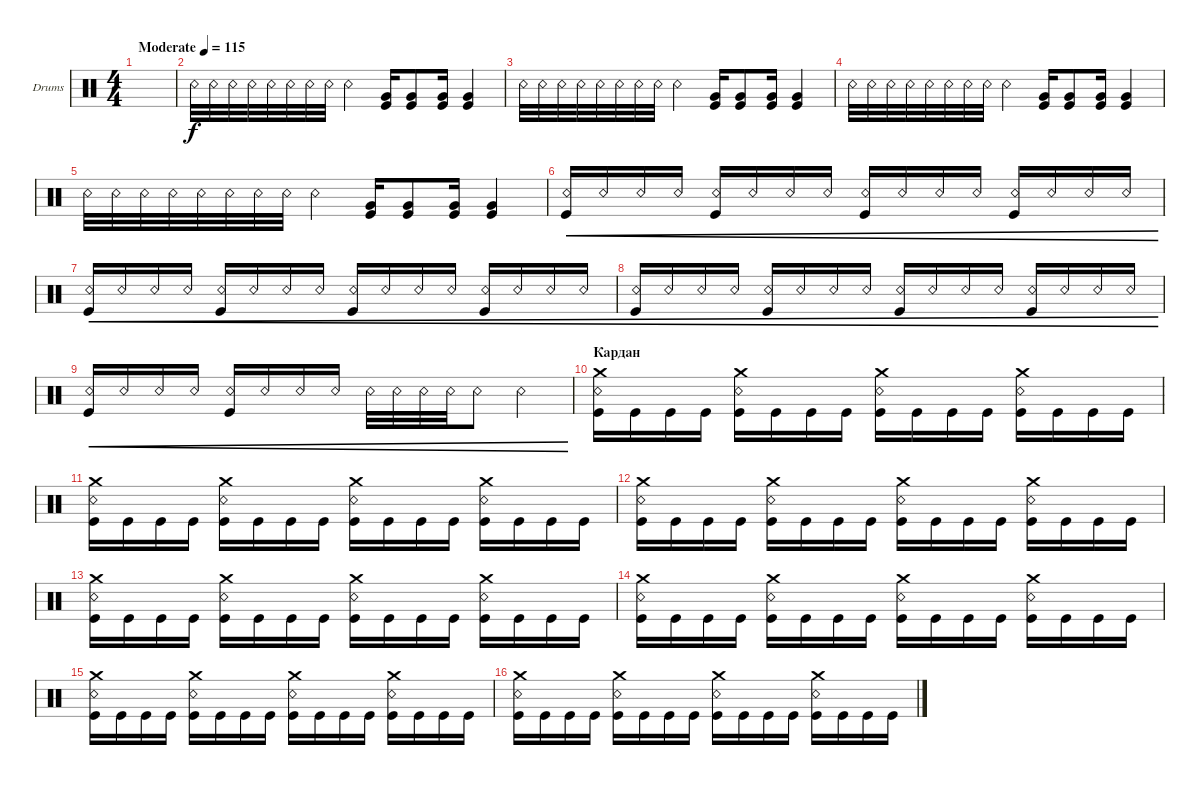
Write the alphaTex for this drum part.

\bracketExtendMode groupsimilarinstruments
\firstSystemTrackNameOrientation horizontal
\otherSystemsTrackNameOrientation horizontal
\track ("Drumkit" "Drums") {instrument percussion}
\staff {score}
\articulation defaults
\ts (4 4)
\beaming (8 2 2 2 2)
\tempo (115 "Moderate")
\clef neutral
\scale
0.474178
\ks c
|
\scale
0.262911 "Snare (rim shot)".32 "Snare (rim shot)".32 "Snare (rim shot)".32 "Snare (rim shot)".32 "Snare (rim shot)".32 "Snare (rim shot)".32 "Snare (rim shot)".32 "Snare (rim shot)".32 "Snare (rim shot)".4 ("Kick (hit)" "Very Low Tom (hit)").16 ("Kick (hit)" "Very Low Tom (hit)").8 ("Kick (hit)" "Very Low Tom (hit)").16 ("Kick (hit)" "Very Low Tom (hit)").4 |
\scale
0.262911 "Snare (rim shot)".32 "Snare (rim shot)".32 "Snare (rim shot)".32 "Snare (rim shot)".32 "Snare (rim shot)".32 "Snare (rim shot)".32 "Snare (rim shot)".32 "Snare (rim shot)".32 "Snare (rim shot)".4 ("Kick (hit)" "Very Low Tom (hit)").16 ("Kick (hit)" "Very Low Tom (hit)").8 ("Kick (hit)" "Very Low Tom (hit)").16 ("Kick (hit)" "Very Low Tom (hit)").4 |
\scale
0.333333 "Snare (rim shot)".32 "Snare (rim shot)".32 "Snare (rim shot)".32 "Snare (rim shot)".32 "Snare (rim shot)".32 "Snare (rim shot)".32 "Snare (rim shot)".32 "Snare (rim shot)".32 "Snare (rim shot)".4 ("Kick (hit)" "Very Low Tom (hit)").16 ("Kick (hit)" "Very Low Tom (hit)").8 ("Kick (hit)" "Very Low Tom (hit)").16 ("Kick (hit)" "Very Low Tom (hit)").4 |
\scale
0.333333 "Snare (rim shot)".32 "Snare (rim shot)".32 "Snare (rim shot)".32 "Snare (rim shot)".32 "Snare (rim shot)".32 "Snare (rim shot)".32 "Snare (rim shot)".32 "Snare (rim shot)".32 "Snare (rim shot)".4 ("Kick (hit)" "Very Low Tom (hit)").16 ("Kick (hit)" "Very Low Tom (hit)").8 ("Kick (hit)" "Very Low Tom (hit)").16 ("Kick (hit)" "Very Low Tom (hit)").4 |
\scale
0.333333 ("Snare (rim shot)" "Kick (hit)").16{cre} "Snare (rim shot)".16{cre} "Snare (rim shot)".16{cre} "Snare (rim shot)".16{cre} ("Snare (rim shot)" "Kick (hit)").16{cre} "Snare (rim shot)".16{cre} "Snare (rim shot)".16{cre} "Snare (rim shot)".16{cre} ("Snare (rim shot)" "Kick (hit)").16{cre} "Snare (rim shot)".16{cre} "Snare (rim shot)".16{cre} "Snare (rim shot)".16{cre} ("Snare (rim shot)" "Kick (hit)").16{cre} "Snare (rim shot)".16{cre} "Snare (rim shot)".16{cre} "Snare (rim shot)".16{cre} |
\scale
0.333333 ("Snare (rim shot)" "Kick (hit)").16{cre} "Snare (rim shot)".16{cre} "Snare (rim shot)".16{cre} "Snare (rim shot)".16{cre} ("Snare (rim shot)" "Kick (hit)").16{cre} "Snare (rim shot)".16{cre} "Snare (rim shot)".16{cre} "Snare (rim shot)".16{cre} ("Snare (rim shot)" "Kick (hit)").16{cre} "Snare (rim shot)".16{cre} "Snare (rim shot)".16{cre} "Snare (rim shot)".16{cre} ("Snare (rim shot)" "Kick (hit)").16{cre} "Snare (rim shot)".16{cre} "Snare (rim shot)".16{cre} "Snare (rim shot)".16{cre} |
\scale
0.333333 ("Snare (rim shot)" "Kick (hit)").16{cre} "Snare (rim shot)".16{cre} "Snare (rim shot)".16{cre} "Snare (rim shot)".16{cre} ("Snare (rim shot)" "Kick (hit)").16{cre} "Snare (rim shot)".16{cre} "Snare (rim shot)".16{cre} "Snare (rim shot)".16{cre} ("Snare (rim shot)" "Kick (hit)").16{cre} "Snare (rim shot)".16{cre} "Snare (rim shot)".16{cre} "Snare (rim shot)".16{cre} ("Snare (rim shot)" "Kick (hit)").16{cre} "Snare (rim shot)".16{cre} "Snare (rim shot)".16{cre} "Snare (rim shot)".16{cre} |
\scale
0.333333 ("Snare (rim shot)" "Kick (hit)").16{cre} "Snare (rim shot)".16{cre} "Snare (rim shot)".16{cre} "Snare (rim shot)".16{cre} ("Snare (rim shot)" "Kick (hit)").16{cre} "Snare (rim shot)".16{cre} "Snare (rim shot)".16{cre} "Snare (rim shot)".16{cre} "Snare (rim shot)".32{cre} "Snare (rim shot)".32{cre} "Snare (rim shot)".32{cre} "Snare (rim shot)".32{cre} "Snare (rim shot)".8{cre} "Snare (rim shot)".4{cre} |
\section ("" "Кардан")
\scale
0.333333 ("Kick (hit)" "Snare (rim shot)" "Crash medium (hit)").16 "Kick (hit)".16 "Kick (hit)".16 "Kick (hit)".16 ("Kick (hit)" "Snare (rim shot)" "Crash medium (hit)").16 "Kick (hit)".16 "Kick (hit)".16 "Kick (hit)".16 ("Kick (hit)" "Snare (rim shot)" "Crash medium (hit)").16 "Kick (hit)".16 "Kick (hit)".16 "Kick (hit)".16 ("Kick (hit)" "Snare (rim shot)" "Crash medium (hit)").16 "Kick (hit)".16 "Kick (hit)".16 "Kick (hit)".16 |
\scale
0.333333 ("Kick (hit)" "Snare (rim shot)" "Crash medium (hit)").16 "Kick (hit)".16 "Kick (hit)".16 "Kick (hit)".16 ("Kick (hit)" "Snare (rim shot)" "Crash medium (hit)").16 "Kick (hit)".16 "Kick (hit)".16 "Kick (hit)".16 ("Kick (hit)" "Snare (rim shot)" "Crash medium (hit)").16 "Kick (hit)".16 "Kick (hit)".16 "Kick (hit)".16 ("Kick (hit)" "Snare (rim shot)" "Crash medium (hit)").16 "Kick (hit)".16 "Kick (hit)".16 "Kick (hit)".16 |
\scale
0.333333 ("Kick (hit)" "Snare (rim shot)" "Crash medium (hit)").16 "Kick (hit)".16 "Kick (hit)".16 "Kick (hit)".16 ("Kick (hit)" "Snare (rim shot)" "Crash medium (hit)").16 "Kick (hit)".16 "Kick (hit)".16 "Kick (hit)".16 ("Kick (hit)" "Snare (rim shot)" "Crash medium (hit)").16 "Kick (hit)".16 "Kick (hit)".16 "Kick (hit)".16 ("Kick (hit)" "Snare (rim shot)" "Crash medium (hit)").16 "Kick (hit)".16 "Kick (hit)".16 "Kick (hit)".16 |
\scale
0.333333 ("Kick (hit)" "Snare (rim shot)" "Crash medium (hit)").16 "Kick (hit)".16 "Kick (hit)".16 "Kick (hit)".16 ("Kick (hit)" "Snare (rim shot)" "Crash medium (hit)").16 "Kick (hit)".16 "Kick (hit)".16 "Kick (hit)".16 ("Kick (hit)" "Snare (rim shot)" "Crash medium (hit)").16 "Kick (hit)".16 "Kick (hit)".16 "Kick (hit)".16 ("Kick (hit)" "Snare (rim shot)" "Crash medium (hit)").16 "Kick (hit)".16 "Kick (hit)".16 "Kick (hit)".16 |
\scale
0.333333 ("Kick (hit)" "Snare (rim shot)" "Crash medium (hit)").16 "Kick (hit)".16 "Kick (hit)".16 "Kick (hit)".16 ("Kick (hit)" "Snare (rim shot)" "Crash medium (hit)").16 "Kick (hit)".16 "Kick (hit)".16 "Kick (hit)".16 ("Kick (hit)" "Snare (rim shot)" "Crash medium (hit)").16 "Kick (hit)".16 "Kick (hit)".16 "Kick (hit)".16 ("Kick (hit)" "Snare (rim shot)" "Crash medium (hit)").16 "Kick (hit)".16 "Kick (hit)".16 "Kick (hit)".16 |
\scale
0.333333 ("Kick (hit)" "Snare (rim shot)" "Crash medium (hit)").16 "Kick (hit)".16 "Kick (hit)".16 "Kick (hit)".16 ("Kick (hit)" "Snare (rim shot)" "Crash medium (hit)").16 "Kick (hit)".16 "Kick (hit)".16 "Kick (hit)".16 ("Kick (hit)" "Snare (rim shot)" "Crash medium (hit)").16 "Kick (hit)".16 "Kick (hit)".16 "Kick (hit)".16 ("Kick (hit)" "Snare (rim shot)" "Crash medium (hit)").16 "Kick (hit)".16 "Kick (hit)".16 "Kick (hit)".16 |
\scale
0.333333 ("Kick (hit)" "Snare (rim shot)" "Crash medium (hit)").16 "Kick (hit)".16 "Kick (hit)".16 "Kick (hit)".16 ("Kick (hit)" "Snare (rim shot)" "Crash medium (hit)").16 "Kick (hit)".16 "Kick (hit)".16 "Kick (hit)".16 ("Kick (hit)" "Snare (rim shot)" "Crash medium (hit)").16 "Kick (hit)".16 "Kick (hit)".16 "Kick (hit)".16 ("Kick (hit)" "Snare (rim shot)" "Crash medium (hit)").16 "Kick (hit)".16 "Kick (hit)".16 "Kick (hit)".16
